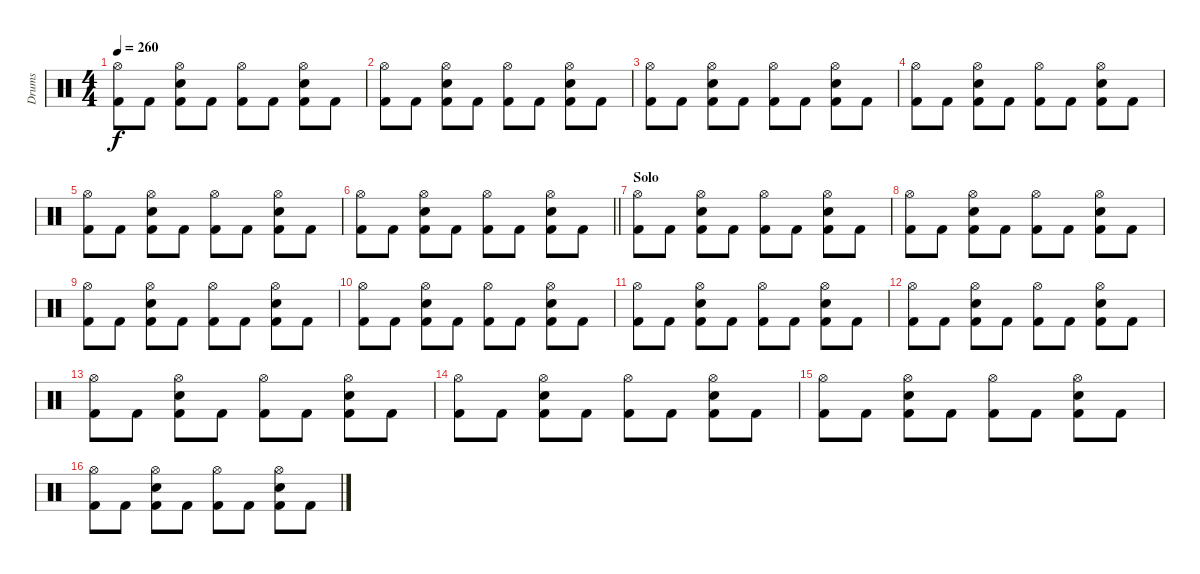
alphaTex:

\track ("Drums" "Drums") {instrument percussion}
\staff {score}
\articulation defaults
\ts (4 4)
\tempo 260
\clef neutral
\ks c
("Hi-Hat (open)" "Kick (hit) 2").8{dy f} "Kick (hit) 2".8 ("Hi-Hat (open)" "Snare (hit) 2" "Kick (hit) 2").8 "Kick (hit) 2".8 ("Hi-Hat (open)" "Kick (hit) 2").8 "Kick (hit) 2".8 ("Hi-Hat (open)" "Snare (hit) 2" "Kick (hit) 2").8 "Kick (hit) 2".8 |
("Hi-Hat (open)" "Kick (hit) 2").8 "Kick (hit) 2".8 ("Hi-Hat (open)" "Snare (hit) 2" "Kick (hit) 2").8 "Kick (hit) 2".8 ("Hi-Hat (open)" "Kick (hit) 2").8 "Kick (hit) 2".8 ("Hi-Hat (open)" "Snare (hit) 2" "Kick (hit) 2").8 "Kick (hit) 2".8 |
("Hi-Hat (open)" "Kick (hit) 2").8 "Kick (hit) 2".8 ("Hi-Hat (open)" "Snare (hit) 2" "Kick (hit) 2").8 "Kick (hit) 2".8 ("Hi-Hat (open)" "Kick (hit) 2").8 "Kick (hit) 2".8 ("Hi-Hat (open)" "Snare (hit) 2" "Kick (hit) 2").8 "Kick (hit) 2".8 |
("Hi-Hat (open)" "Kick (hit) 2").8 "Kick (hit) 2".8 ("Hi-Hat (open)" "Snare (hit) 2" "Kick (hit) 2").8 "Kick (hit) 2".8 ("Hi-Hat (open)" "Kick (hit) 2").8 "Kick (hit) 2".8 ("Hi-Hat (open)" "Snare (hit) 2" "Kick (hit) 2").8 "Kick (hit) 2".8 |
("Hi-Hat (open)" "Kick (hit) 2").8 "Kick (hit) 2".8 ("Hi-Hat (open)" "Snare (hit) 2" "Kick (hit) 2").8 "Kick (hit) 2".8 ("Hi-Hat (open)" "Kick (hit) 2").8 "Kick (hit) 2".8 ("Hi-Hat (open)" "Snare (hit) 2" "Kick (hit) 2").8 "Kick (hit) 2".8 |
\barLineRight lightlight
("Hi-Hat (open)" "Kick (hit) 2").8 "Kick (hit) 2".8 ("Hi-Hat (open)" "Snare (hit) 2" "Kick (hit) 2").8 "Kick (hit) 2".8 ("Hi-Hat (open)" "Kick (hit) 2").8 "Kick (hit) 2".8 ("Hi-Hat (open)" "Snare (hit) 2" "Kick (hit) 2").8 "Kick (hit) 2".8 |
\section ("" "Solo")
("Hi-Hat (open)" "Kick (hit) 2").8 "Kick (hit) 2".8 ("Hi-Hat (open)" "Snare (hit) 2" "Kick (hit) 2").8 "Kick (hit) 2".8 ("Hi-Hat (open)" "Kick (hit) 2").8 "Kick (hit) 2".8 ("Hi-Hat (open)" "Snare (hit) 2" "Kick (hit) 2").8 "Kick (hit) 2".8 |
("Hi-Hat (open)" "Kick (hit) 2").8 "Kick (hit) 2".8 ("Hi-Hat (open)" "Snare (hit) 2" "Kick (hit) 2").8 "Kick (hit) 2".8 ("Hi-Hat (open)" "Kick (hit) 2").8 "Kick (hit) 2".8 ("Hi-Hat (open)" "Snare (hit) 2" "Kick (hit) 2").8 "Kick (hit) 2".8 |
("Hi-Hat (open)" "Kick (hit) 2").8 "Kick (hit) 2".8 ("Hi-Hat (open)" "Snare (hit) 2" "Kick (hit) 2").8 "Kick (hit) 2".8 ("Hi-Hat (open)" "Kick (hit) 2").8 "Kick (hit) 2".8 ("Hi-Hat (open)" "Snare (hit) 2" "Kick (hit) 2").8 "Kick (hit) 2".8 |
("Hi-Hat (open)" "Kick (hit) 2").8 "Kick (hit) 2".8 ("Hi-Hat (open)" "Snare (hit) 2" "Kick (hit) 2").8 "Kick (hit) 2".8 ("Hi-Hat (open)" "Kick (hit) 2").8 "Kick (hit) 2".8 ("Hi-Hat (open)" "Snare (hit) 2" "Kick (hit) 2").8 "Kick (hit) 2".8 |
("Hi-Hat (open)" "Kick (hit) 2").8 "Kick (hit) 2".8 ("Hi-Hat (open)" "Snare (hit) 2" "Kick (hit) 2").8 "Kick (hit) 2".8 ("Hi-Hat (open)" "Kick (hit) 2").8 "Kick (hit) 2".8 ("Hi-Hat (open)" "Snare (hit) 2" "Kick (hit) 2").8 "Kick (hit) 2".8 |
("Hi-Hat (open)" "Kick (hit) 2").8 "Kick (hit) 2".8 ("Hi-Hat (open)" "Snare (hit) 2" "Kick (hit) 2").8 "Kick (hit) 2".8 ("Hi-Hat (open)" "Kick (hit) 2").8 "Kick (hit) 2".8 ("Hi-Hat (open)" "Snare (hit) 2" "Kick (hit) 2").8 "Kick (hit) 2".8 |
("Hi-Hat (open)" "Kick (hit) 2").8 "Kick (hit) 2".8 ("Hi-Hat (open)" "Snare (hit) 2" "Kick (hit) 2").8 "Kick (hit) 2".8 ("Hi-Hat (open)" "Kick (hit) 2").8 "Kick (hit) 2".8 ("Hi-Hat (open)" "Snare (hit) 2" "Kick (hit) 2").8 "Kick (hit) 2".8 |
("Hi-Hat (open)" "Kick (hit) 2").8 "Kick (hit) 2".8 ("Hi-Hat (open)" "Snare (hit) 2" "Kick (hit) 2").8 "Kick (hit) 2".8 ("Hi-Hat (open)" "Kick (hit) 2").8 "Kick (hit) 2".8 ("Hi-Hat (open)" "Snare (hit) 2" "Kick (hit) 2").8 "Kick (hit) 2".8 |
("Hi-Hat (open)" "Kick (hit) 2").8 "Kick (hit) 2".8 ("Hi-Hat (open)" "Snare (hit) 2" "Kick (hit) 2").8 "Kick (hit) 2".8 ("Hi-Hat (open)" "Kick (hit) 2").8 "Kick (hit) 2".8 ("Hi-Hat (open)" "Snare (hit) 2" "Kick (hit) 2").8 "Kick (hit) 2".8 |
("Hi-Hat (open)" "Kick (hit) 2").8 "Kick (hit) 2".8 ("Hi-Hat (open)" "Snare (hit) 2" "Kick (hit) 2").8 "Kick (hit) 2".8 ("Hi-Hat (open)" "Kick (hit) 2").8 "Kick (hit) 2".8 ("Hi-Hat (open)" "Snare (hit) 2" "Kick (hit) 2").8 "Kick (hit) 2".8
